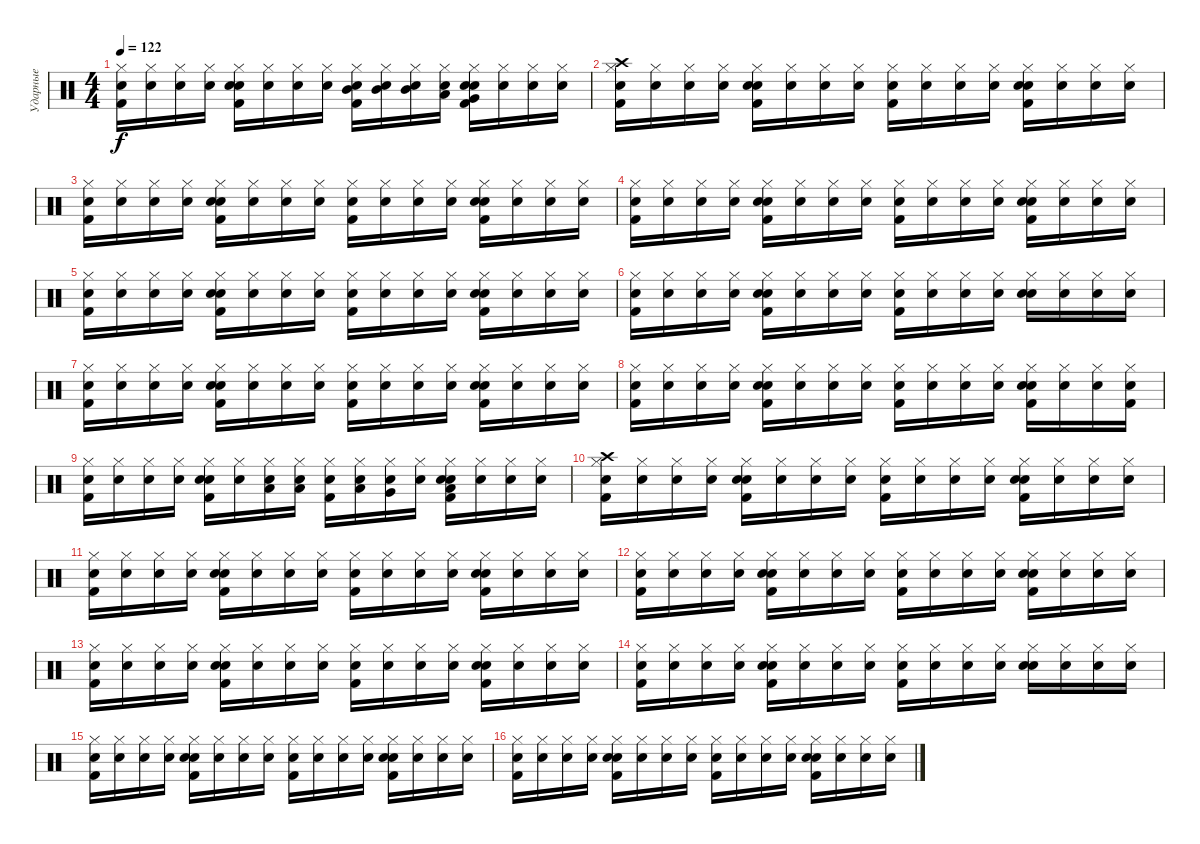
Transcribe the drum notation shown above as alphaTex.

\track ("Ударные" "Ударные") {instrument percussion}
\staff {score}
\articulation defaults
\ts (4 4)
\tempo 122
\clef neutral
\ks c
("Snare (hit)" "Kick (hit) 2" "Hi-Hat (closed)").16{dy f} ("Snare (hit)" "Hi-Hat (closed)").16 ("Snare (hit)" "Hi-Hat (closed)").16 ("Snare (hit)" "Hi-Hat (closed)").16 ("Snare (hit)" "Kick (hit) 2" "Snare (hit) 2" "Hi-Hat (closed)").16 ("Snare (hit)" "Hi-Hat (closed)").16 ("Snare (hit)" "Hi-Hat (closed)").16 ("Snare (hit)" "Hi-Hat (closed)").16 ("Snare (hit)" "Mid Tom (hit)" "Kick (hit) 2" "Hi-Hat (closed)").16 ("Snare (hit)" "Mid Tom (hit)" "Hi-Hat (closed)").16 ("Snare (hit)" "Mid Tom (hit)" "Hi-Hat (closed)").16 ("Snare (hit)" "Low Tom (hit)" "Hi-Hat (closed)").16 ("Snare (hit)" "Very Low Tom (hit)" "Kick (hit) 2" "Snare (hit) 2" "Hi-Hat (closed)").16 ("Snare (hit)" "Hi-Hat (closed)").16 ("Snare (hit)" "Hi-Hat (closed)").16 ("Snare (hit)" "Hi-Hat (closed)").16 |
("Snare (hit)" "Hi-Hat (closed)" "Kick (hit) 2" "Crash high (hit)").16 ("Snare (hit)" "Hi-Hat (closed)").16 ("Snare (hit)" "Hi-Hat (closed)").16 ("Snare (hit)" "Hi-Hat (closed)").16 ("Snare (hit)" "Kick (hit) 2" "Hi-Hat (closed)" "Snare (hit) 2").16 ("Snare (hit)" "Hi-Hat (closed)").16 ("Snare (hit)" "Hi-Hat (closed)").16 ("Snare (hit)" "Hi-Hat (closed)").16 ("Snare (hit)" "Hi-Hat (closed)" "Kick (hit) 2").16 ("Snare (hit)" "Hi-Hat (closed)").16 ("Snare (hit)" "Hi-Hat (closed)").16 ("Snare (hit)" "Hi-Hat (closed)").16 ("Snare (hit)" "Kick (hit) 2" "Hi-Hat (closed)" "Snare (hit) 2").16 ("Snare (hit)" "Hi-Hat (closed)").16 ("Snare (hit)" "Hi-Hat (closed)").16 ("Snare (hit)" "Hi-Hat (closed)").16 |
("Snare (hit)" "Kick (hit) 2" "Hi-Hat (closed)").16 ("Snare (hit)" "Hi-Hat (closed)").16 ("Snare (hit)" "Hi-Hat (closed)").16 ("Snare (hit)" "Hi-Hat (closed)").16 ("Snare (hit)" "Kick (hit) 2" "Snare (hit) 2" "Hi-Hat (closed)").16 ("Snare (hit)" "Hi-Hat (closed)").16 ("Snare (hit)" "Hi-Hat (closed)").16 ("Snare (hit)" "Hi-Hat (closed)").16 ("Snare (hit)" "Kick (hit) 2" "Hi-Hat (closed)").16 ("Snare (hit)" "Hi-Hat (closed)").16 ("Snare (hit)" "Hi-Hat (closed)").16 ("Snare (hit)" "Hi-Hat (closed)").16 ("Snare (hit)" "Kick (hit) 2" "Snare (hit) 2" "Hi-Hat (closed)").16 ("Snare (hit)" "Hi-Hat (closed)").16 ("Snare (hit)" "Hi-Hat (closed)").16 ("Snare (hit)" "Hi-Hat (closed)").16 |
("Snare (hit)" "Kick (hit) 2" "Hi-Hat (closed)").16 ("Snare (hit)" "Hi-Hat (closed)").16 ("Snare (hit)" "Hi-Hat (closed)").16 ("Snare (hit)" "Hi-Hat (closed)").16 ("Snare (hit)" "Kick (hit) 2" "Snare (hit) 2" "Hi-Hat (closed)").16 ("Snare (hit)" "Hi-Hat (closed)").16 ("Snare (hit)" "Hi-Hat (closed)").16 ("Snare (hit)" "Hi-Hat (closed)").16 ("Snare (hit)" "Kick (hit) 2" "Hi-Hat (closed)").16 ("Snare (hit)" "Hi-Hat (closed)").16 ("Snare (hit)" "Hi-Hat (closed)").16 ("Snare (hit)" "Hi-Hat (closed)").16 ("Snare (hit)" "Kick (hit) 2" "Snare (hit) 2" "Hi-Hat (closed)").16 ("Snare (hit)" "Hi-Hat (closed)").16 ("Snare (hit)" "Hi-Hat (closed)").16 ("Snare (hit)" "Hi-Hat (closed)").16 |
("Snare (hit)" "Kick (hit) 2" "Hi-Hat (closed)").16 ("Snare (hit)" "Hi-Hat (closed)").16 ("Snare (hit)" "Hi-Hat (closed)").16 ("Snare (hit)" "Hi-Hat (closed)").16 ("Snare (hit)" "Kick (hit) 2" "Snare (hit) 2" "Hi-Hat (closed)").16 ("Snare (hit)" "Hi-Hat (closed)").16 ("Snare (hit)" "Hi-Hat (closed)").16 ("Snare (hit)" "Hi-Hat (closed)").16 ("Snare (hit)" "Kick (hit) 2" "Hi-Hat (closed)").16 ("Snare (hit)" "Hi-Hat (closed)").16 ("Snare (hit)" "Hi-Hat (closed)").16 ("Snare (hit)" "Hi-Hat (closed)").16 ("Snare (hit)" "Kick (hit) 2" "Snare (hit) 2" "Hi-Hat (closed)").16 ("Snare (hit)" "Hi-Hat (closed)").16 ("Snare (hit)" "Hi-Hat (closed)").16 ("Snare (hit)" "Hi-Hat (closed)").16 |
("Snare (hit)" "Kick (hit) 2" "Hi-Hat (closed)").16 ("Snare (hit)" "Hi-Hat (closed)").16 ("Snare (hit)" "Hi-Hat (closed)").16 ("Snare (hit)" "Hi-Hat (closed)").16 ("Snare (hit)" "Kick (hit) 2" "Snare (hit) 2" "Hi-Hat (closed)").16 ("Snare (hit)" "Hi-Hat (closed)").16 ("Snare (hit)" "Hi-Hat (closed)").16 ("Snare (hit)" "Hi-Hat (closed)").16 ("Snare (hit)" "Kick (hit) 2" "Hi-Hat (closed)").16 ("Snare (hit)" "Hi-Hat (closed)").16 ("Snare (hit)" "Hi-Hat (closed)").16 ("Snare (hit)" "Hi-Hat (closed)").16 ("Snare (hit)" "Snare (hit) 2" "Hi-Hat (closed)").16 ("Snare (hit)" "Hi-Hat (closed)").16 ("Snare (hit)" "Hi-Hat (closed)").16 ("Snare (hit)" "Hi-Hat (closed)").16 |
("Snare (hit)" "Kick (hit) 2" "Hi-Hat (closed)").16 ("Snare (hit)" "Hi-Hat (closed)").16 ("Snare (hit)" "Hi-Hat (closed)").16 ("Snare (hit)" "Hi-Hat (closed)").16 ("Snare (hit)" "Kick (hit) 2" "Snare (hit) 2" "Hi-Hat (closed)").16 ("Snare (hit)" "Hi-Hat (closed)").16 ("Snare (hit)" "Hi-Hat (closed)").16 ("Snare (hit)" "Hi-Hat (closed)").16 ("Snare (hit)" "Kick (hit) 2" "Hi-Hat (closed)").16 ("Snare (hit)" "Hi-Hat (closed)").16 ("Snare (hit)" "Hi-Hat (closed)").16 ("Snare (hit)" "Hi-Hat (closed)").16 ("Snare (hit)" "Kick (hit) 2" "Snare (hit) 2" "Hi-Hat (closed)").16 ("Snare (hit)" "Hi-Hat (closed)").16 ("Snare (hit)" "Hi-Hat (closed)").16 ("Snare (hit)" "Hi-Hat (closed)").16 |
("Snare (hit)" "Kick (hit) 2" "Hi-Hat (closed)").16 ("Snare (hit)" "Hi-Hat (closed)").16 ("Snare (hit)" "Hi-Hat (closed)").16 ("Snare (hit)" "Hi-Hat (closed)").16 ("Snare (hit)" "Kick (hit) 2" "Snare (hit) 2" "Hi-Hat (closed)").16 ("Snare (hit)" "Hi-Hat (closed)").16 ("Snare (hit)" "Hi-Hat (closed)").16 ("Snare (hit)" "Hi-Hat (closed)").16 ("Snare (hit)" "Kick (hit) 2" "Hi-Hat (closed)").16 ("Snare (hit)" "Hi-Hat (closed)").16 ("Snare (hit)" "Hi-Hat (closed)").16 ("Snare (hit)" "Hi-Hat (closed)").16 ("Snare (hit)" "Kick (hit) 2" "Snare (hit) 2" "Hi-Hat (closed)").16 ("Snare (hit)" "Hi-Hat (closed)").16 ("Snare (hit)" "Hi-Hat (closed)").16 ("Snare (hit)" "Kick (hit) 2" "Hi-Hat (closed)").16 |
("Snare (hit)" "Kick (hit) 2" "Hi-Hat (closed)").16 ("Snare (hit)" "Hi-Hat (closed)").16 ("Snare (hit)" "Hi-Hat (closed)").16 ("Snare (hit)" "Hi-Hat (closed)").16 ("Snare (hit)" "Kick (hit) 2" "Snare (hit) 2" "Hi-Hat (closed)").16 ("Snare (hit)" "Hi-Hat (closed)").16 ("Snare (hit)" "Low Tom (hit)" "Hi-Hat (closed)").16 ("Snare (hit)" "Low Tom (hit)" "Hi-Hat (closed)").16 ("Snare (hit)" "Kick (hit) 2" "Hi-Hat (closed)").16 ("Snare (hit)" "Low Tom (hit)" "Hi-Hat (closed)").16 ("Snare (hit)" "Very Low Tom (hit)" "Hi-Hat (closed)").16 ("Snare (hit)" "Hi-Hat (closed)").16 ("Snare (hit)" "Kick (hit) 2" "Low Floor Tom (hit)" "Snare (hit) 2" "Hi-Hat (closed)").16 ("Snare (hit)" "Hi-Hat (closed)").16 ("Snare (hit)" "Hi-Hat (closed)").16 ("Snare (hit)" "Hi-Hat (closed)").16 |
("Snare (hit)" "Hi-Hat (closed)" "Kick (hit) 2" "Crash high (hit)").16 ("Snare (hit)" "Hi-Hat (closed)").16 ("Snare (hit)" "Hi-Hat (closed)").16 ("Snare (hit)" "Hi-Hat (closed)").16 ("Snare (hit)" "Kick (hit) 2" "Hi-Hat (closed)" "Snare (hit) 2").16 ("Snare (hit)" "Hi-Hat (closed)").16 ("Snare (hit)" "Hi-Hat (closed)").16 ("Snare (hit)" "Hi-Hat (closed)").16 ("Snare (hit)" "Hi-Hat (closed)" "Kick (hit) 2").16 ("Snare (hit)" "Hi-Hat (closed)").16 ("Snare (hit)" "Hi-Hat (closed)").16 ("Snare (hit)" "Hi-Hat (closed)").16 ("Snare (hit)" "Kick (hit) 2" "Hi-Hat (closed)" "Snare (hit) 2").16 ("Snare (hit)" "Hi-Hat (closed)").16 ("Snare (hit)" "Hi-Hat (closed)").16 ("Snare (hit)" "Hi-Hat (closed)").16 |
("Snare (hit)" "Kick (hit) 2" "Hi-Hat (closed)").16 ("Snare (hit)" "Hi-Hat (closed)").16 ("Snare (hit)" "Hi-Hat (closed)").16 ("Snare (hit)" "Hi-Hat (closed)").16 ("Snare (hit)" "Kick (hit) 2" "Snare (hit) 2" "Hi-Hat (closed)").16 ("Snare (hit)" "Hi-Hat (closed)").16 ("Snare (hit)" "Hi-Hat (closed)").16 ("Snare (hit)" "Hi-Hat (closed)").16 ("Snare (hit)" "Kick (hit) 2" "Hi-Hat (closed)").16 ("Snare (hit)" "Hi-Hat (closed)").16 ("Snare (hit)" "Hi-Hat (closed)").16 ("Snare (hit)" "Hi-Hat (closed)").16 ("Snare (hit)" "Kick (hit) 2" "Snare (hit) 2" "Hi-Hat (closed)").16 ("Snare (hit)" "Hi-Hat (closed)").16 ("Snare (hit)" "Hi-Hat (closed)").16 ("Snare (hit)" "Hi-Hat (closed)").16 |
("Snare (hit)" "Kick (hit) 2" "Hi-Hat (closed)").16 ("Snare (hit)" "Hi-Hat (closed)").16 ("Snare (hit)" "Hi-Hat (closed)").16 ("Snare (hit)" "Hi-Hat (closed)").16 ("Snare (hit)" "Kick (hit) 2" "Snare (hit) 2" "Hi-Hat (closed)").16 ("Snare (hit)" "Hi-Hat (closed)").16 ("Snare (hit)" "Hi-Hat (closed)").16 ("Snare (hit)" "Hi-Hat (closed)").16 ("Snare (hit)" "Kick (hit) 2" "Hi-Hat (closed)").16 ("Snare (hit)" "Hi-Hat (closed)").16 ("Snare (hit)" "Hi-Hat (closed)").16 ("Snare (hit)" "Hi-Hat (closed)").16 ("Snare (hit)" "Kick (hit) 2" "Snare (hit) 2" "Hi-Hat (closed)").16 ("Snare (hit)" "Hi-Hat (closed)").16 ("Snare (hit)" "Hi-Hat (closed)").16 ("Snare (hit)" "Hi-Hat (closed)").16 |
("Snare (hit)" "Kick (hit) 2" "Hi-Hat (closed)").16 ("Snare (hit)" "Hi-Hat (closed)").16 ("Snare (hit)" "Hi-Hat (closed)").16 ("Snare (hit)" "Hi-Hat (closed)").16 ("Snare (hit)" "Kick (hit) 2" "Snare (hit) 2" "Hi-Hat (closed)").16 ("Snare (hit)" "Hi-Hat (closed)").16 ("Snare (hit)" "Hi-Hat (closed)").16 ("Snare (hit)" "Hi-Hat (closed)").16 ("Snare (hit)" "Kick (hit) 2" "Hi-Hat (closed)").16 ("Snare (hit)" "Hi-Hat (closed)").16 ("Snare (hit)" "Hi-Hat (closed)").16 ("Snare (hit)" "Hi-Hat (closed)").16 ("Snare (hit)" "Kick (hit) 2" "Snare (hit) 2" "Hi-Hat (closed)").16 ("Snare (hit)" "Hi-Hat (closed)").16 ("Snare (hit)" "Hi-Hat (closed)").16 ("Snare (hit)" "Hi-Hat (closed)").16 |
("Snare (hit)" "Kick (hit) 2" "Hi-Hat (closed)").16 ("Snare (hit)" "Hi-Hat (closed)").16 ("Snare (hit)" "Hi-Hat (closed)").16 ("Snare (hit)" "Hi-Hat (closed)").16 ("Snare (hit)" "Kick (hit) 2" "Snare (hit) 2" "Hi-Hat (closed)").16 ("Snare (hit)" "Hi-Hat (closed)").16 ("Snare (hit)" "Hi-Hat (closed)").16 ("Snare (hit)" "Hi-Hat (closed)").16 ("Snare (hit)" "Kick (hit) 2" "Hi-Hat (closed)").16 ("Snare (hit)" "Hi-Hat (closed)").16 ("Snare (hit)" "Hi-Hat (closed)").16 ("Snare (hit)" "Hi-Hat (closed)").16 ("Snare (hit)" "Snare (hit) 2" "Hi-Hat (closed)").16 ("Snare (hit)" "Hi-Hat (closed)").16 ("Snare (hit)" "Hi-Hat (closed)").16 ("Snare (hit)" "Hi-Hat (closed)").16 |
("Snare (hit)" "Kick (hit) 2" "Hi-Hat (closed)").16 ("Snare (hit)" "Hi-Hat (closed)").16 ("Snare (hit)" "Hi-Hat (closed)").16 ("Snare (hit)" "Hi-Hat (closed)").16 ("Snare (hit)" "Kick (hit) 2" "Snare (hit) 2" "Hi-Hat (closed)").16 ("Snare (hit)" "Hi-Hat (closed)").16 ("Snare (hit)" "Hi-Hat (closed)").16 ("Snare (hit)" "Hi-Hat (closed)").16 ("Snare (hit)" "Kick (hit) 2" "Hi-Hat (closed)").16 ("Snare (hit)" "Hi-Hat (closed)").16 ("Snare (hit)" "Hi-Hat (closed)").16 ("Snare (hit)" "Hi-Hat (closed)").16 ("Snare (hit)" "Kick (hit) 2" "Snare (hit) 2" "Hi-Hat (closed)").16 ("Snare (hit)" "Hi-Hat (closed)").16 ("Snare (hit)" "Hi-Hat (closed)").16 ("Snare (hit)" "Hi-Hat (closed)").16 |
("Snare (hit)" "Kick (hit) 2" "Hi-Hat (closed)").16 ("Snare (hit)" "Hi-Hat (closed)").16 ("Snare (hit)" "Hi-Hat (closed)").16 ("Snare (hit)" "Hi-Hat (closed)").16 ("Snare (hit)" "Kick (hit) 2" "Snare (hit) 2" "Hi-Hat (closed)").16 ("Snare (hit)" "Hi-Hat (closed)").16 ("Snare (hit)" "Hi-Hat (closed)").16 ("Snare (hit)" "Hi-Hat (closed)").16 ("Snare (hit)" "Kick (hit) 2" "Hi-Hat (closed)").16 ("Snare (hit)" "Hi-Hat (closed)").16 ("Snare (hit)" "Hi-Hat (closed)").16 ("Snare (hit)" "Hi-Hat (closed)").16 ("Snare (hit)" "Kick (hit) 2" "Snare (hit) 2" "Hi-Hat (closed)").16 ("Snare (hit)" "Hi-Hat (closed)").16 ("Snare (hit)" "Hi-Hat (closed)").16 ("Snare (hit)" "Hi-Hat (closed)").16
